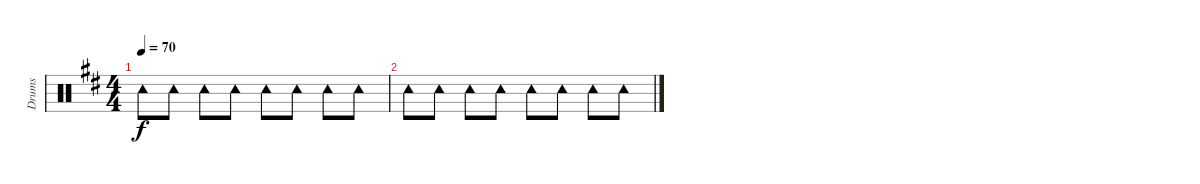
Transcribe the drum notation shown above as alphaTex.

\track ("Drums" "Drums") {instrument percussion}
\staff {score}
\articulation defaults
\ts (4 4)
\tempo 70
\clef neutral
\ks bminor "Tambourine (hit)".8{dy f} "Tambourine (hit)".8 "Tambourine (hit)".8 "Tambourine (hit)".8 "Tambourine (hit)".8 "Tambourine (hit)".8 "Tambourine (hit)".8 "Tambourine (hit)".8
|
"Tambourine (hit)".8 "Tambourine (hit)".8 "Tambourine (hit)".8 "Tambourine (hit)".8 "Tambourine (hit)".8 "Tambourine (hit)".8 "Tambourine (hit)".8 "Tambourine (hit)".8
